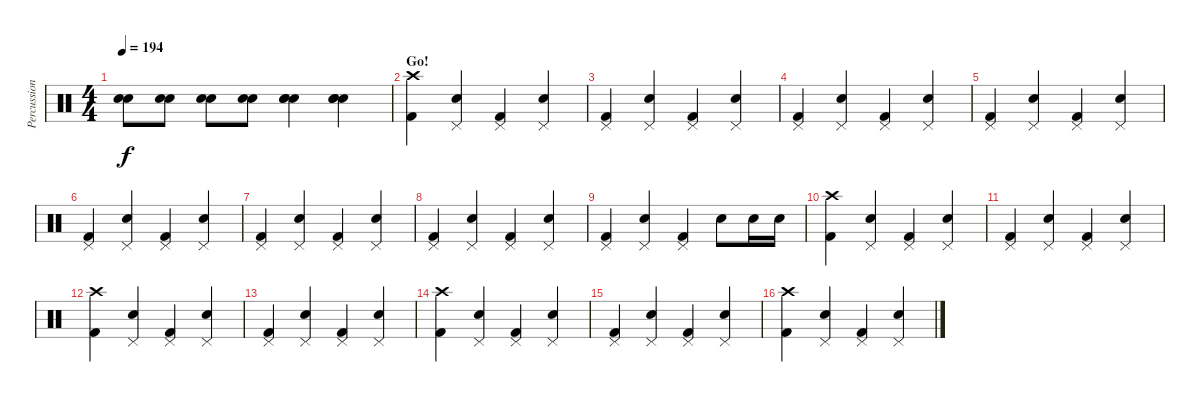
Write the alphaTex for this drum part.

\track ("Percussions" "Percussion") {instrument percussion}
\staff {score}
\articulation defaults
\ts (4 4)
\tempo 194
\clef neutral
\ks c
("Snare (hit) 2" "Snare (hit) 2").8{dy f} ("Snare (hit) 2" "Snare (hit) 2").8 ("Snare (hit) 2" "Snare (hit) 2").8 ("Snare (hit) 2" "Snare (hit) 2").8 ("Snare (hit) 2" "Snare (hit) 2" "Snare (hit) 2").4 ("Snare (hit) 2" "Snare (hit) 2" "Snare (hit) 2").4 |
\section ("" "Go!")
("Crash high (hit)" "Kick (hit) 2").4 ("Pedal Hi-Hat (hit)" "Snare (hit) 2").4 ("Pedal Hi-Hat (hit)" "Kick (hit) 2").4 ("Pedal Hi-Hat (hit)" "Snare (hit) 2").4 |
("Pedal Hi-Hat (hit)" "Kick (hit) 2").4 ("Pedal Hi-Hat (hit)" "Snare (hit) 2").4 ("Pedal Hi-Hat (hit)" "Kick (hit) 2").4 ("Pedal Hi-Hat (hit)" "Snare (hit) 2").4 |
("Pedal Hi-Hat (hit)" "Kick (hit) 2").4 ("Pedal Hi-Hat (hit)" "Snare (hit) 2").4 ("Pedal Hi-Hat (hit)" "Kick (hit) 2").4 ("Pedal Hi-Hat (hit)" "Snare (hit) 2").4 |
("Pedal Hi-Hat (hit)" "Kick (hit) 2").4 ("Pedal Hi-Hat (hit)" "Snare (hit) 2").4 ("Pedal Hi-Hat (hit)" "Kick (hit) 2").4 ("Pedal Hi-Hat (hit)" "Snare (hit) 2").4 |
("Pedal Hi-Hat (hit)" "Kick (hit) 2").4 ("Pedal Hi-Hat (hit)" "Snare (hit) 2").4 ("Pedal Hi-Hat (hit)" "Kick (hit) 2").4 ("Pedal Hi-Hat (hit)" "Snare (hit) 2").4 |
("Pedal Hi-Hat (hit)" "Kick (hit) 2").4 ("Pedal Hi-Hat (hit)" "Snare (hit) 2").4 ("Pedal Hi-Hat (hit)" "Kick (hit) 2").4 ("Pedal Hi-Hat (hit)" "Snare (hit) 2").4 |
("Pedal Hi-Hat (hit)" "Kick (hit) 2").4 ("Pedal Hi-Hat (hit)" "Snare (hit) 2").4 ("Pedal Hi-Hat (hit)" "Kick (hit) 2").4 ("Pedal Hi-Hat (hit)" "Snare (hit) 2").4 |
("Pedal Hi-Hat (hit)" "Kick (hit) 2").4 ("Pedal Hi-Hat (hit)" "Snare (hit) 2").4 ("Pedal Hi-Hat (hit)" "Kick (hit) 2").4 "Snare (hit) 2".8 "Snare (hit) 2".16 "Snare (hit) 2".16 |
("Crash high (hit)" "Kick (hit) 2").4 ("Pedal Hi-Hat (hit)" "Snare (hit) 2").4 ("Pedal Hi-Hat (hit)" "Kick (hit) 2").4 ("Pedal Hi-Hat (hit)" "Snare (hit) 2").4 |
("Pedal Hi-Hat (hit)" "Kick (hit) 2").4 ("Pedal Hi-Hat (hit)" "Snare (hit) 2").4 ("Pedal Hi-Hat (hit)" "Kick (hit) 2").4 ("Pedal Hi-Hat (hit)" "Snare (hit) 2").4 |
("Crash high (hit)" "Kick (hit) 2").4 ("Pedal Hi-Hat (hit)" "Snare (hit) 2").4 ("Pedal Hi-Hat (hit)" "Kick (hit) 2").4 ("Pedal Hi-Hat (hit)" "Snare (hit) 2").4 |
("Pedal Hi-Hat (hit)" "Kick (hit) 2").4 ("Pedal Hi-Hat (hit)" "Snare (hit) 2").4 ("Pedal Hi-Hat (hit)" "Kick (hit) 2").4 ("Pedal Hi-Hat (hit)" "Snare (hit) 2").4 |
("Crash high (hit)" "Kick (hit) 2").4 ("Pedal Hi-Hat (hit)" "Snare (hit) 2").4 ("Pedal Hi-Hat (hit)" "Kick (hit) 2").4 ("Pedal Hi-Hat (hit)" "Snare (hit) 2").4 |
("Pedal Hi-Hat (hit)" "Kick (hit) 2").4 ("Pedal Hi-Hat (hit)" "Snare (hit) 2").4 ("Pedal Hi-Hat (hit)" "Kick (hit) 2").4 ("Pedal Hi-Hat (hit)" "Snare (hit) 2").4 |
("Crash high (hit)" "Kick (hit) 2").4 ("Pedal Hi-Hat (hit)" "Snare (hit) 2").4 ("Pedal Hi-Hat (hit)" "Kick (hit) 2").4 ("Pedal Hi-Hat (hit)" "Snare (hit) 2").4
